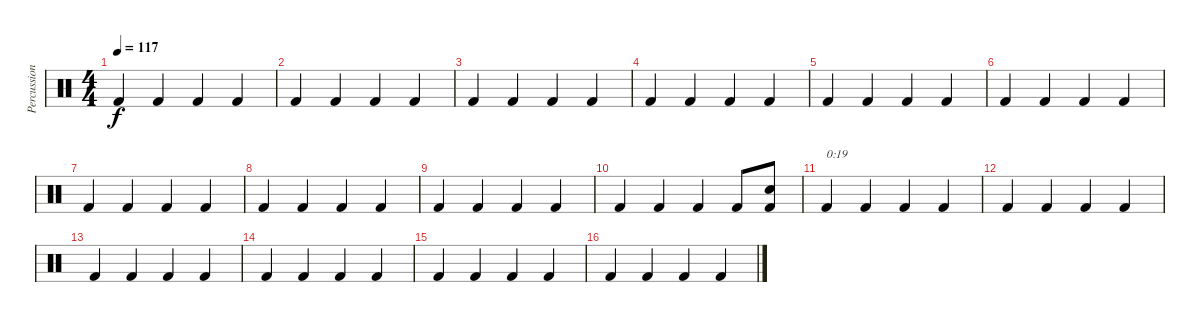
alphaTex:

\track ("Percussion" "Percussion") {instrument percussion}
\staff {score}
\articulation defaults
\ts (4 4)
\tempo 117
\clef neutral
\ks c "Kick (hit) 2".4{dy f} "Kick (hit) 2".4 "Kick (hit) 2".4 "Kick (hit) 2".4
|
"Kick (hit) 2".4 "Kick (hit) 2".4 "Kick (hit) 2".4 "Kick (hit) 2".4 |
"Kick (hit) 2".4 "Kick (hit) 2".4 "Kick (hit) 2".4 "Kick (hit) 2".4 |
"Kick (hit) 2".4 "Kick (hit) 2".4 "Kick (hit) 2".4 "Kick (hit) 2".4 |
"Kick (hit) 2".4 "Kick (hit) 2".4 "Kick (hit) 2".4 "Kick (hit) 2".4 |
"Kick (hit) 2".4 "Kick (hit) 2".4 "Kick (hit) 2".4 "Kick (hit) 2".4 |
"Kick (hit) 2".4 "Kick (hit) 2".4 "Kick (hit) 2".4 "Kick (hit) 2".4 |
"Kick (hit) 2".4 "Kick (hit) 2".4 "Kick (hit) 2".4 "Kick (hit) 2".4 |
"Kick (hit) 2".4 "Kick (hit) 2".4 "Kick (hit) 2".4 "Kick (hit) 2".4 |
"Kick (hit) 2".4 "Kick (hit) 2".4 "Kick (hit) 2".4 "Kick (hit) 2".8 ("Kick (hit) 2" "Snare (hit) 2").8 |
"Kick (hit) 2".4{txt "0:19"} "Kick (hit) 2".4 "Kick (hit) 2".4 "Kick (hit) 2".4 |
"Kick (hit) 2".4 "Kick (hit) 2".4 "Kick (hit) 2".4 "Kick (hit) 2".4 |
"Kick (hit) 2".4 "Kick (hit) 2".4 "Kick (hit) 2".4 "Kick (hit) 2".4 |
"Kick (hit) 2".4 "Kick (hit) 2".4 "Kick (hit) 2".4 "Kick (hit) 2".4 |
"Kick (hit) 2".4 "Kick (hit) 2".4 "Kick (hit) 2".4 "Kick (hit) 2".4 |
"Kick (hit) 2".4 "Kick (hit) 2".4 "Kick (hit) 2".4 "Kick (hit) 2".4
